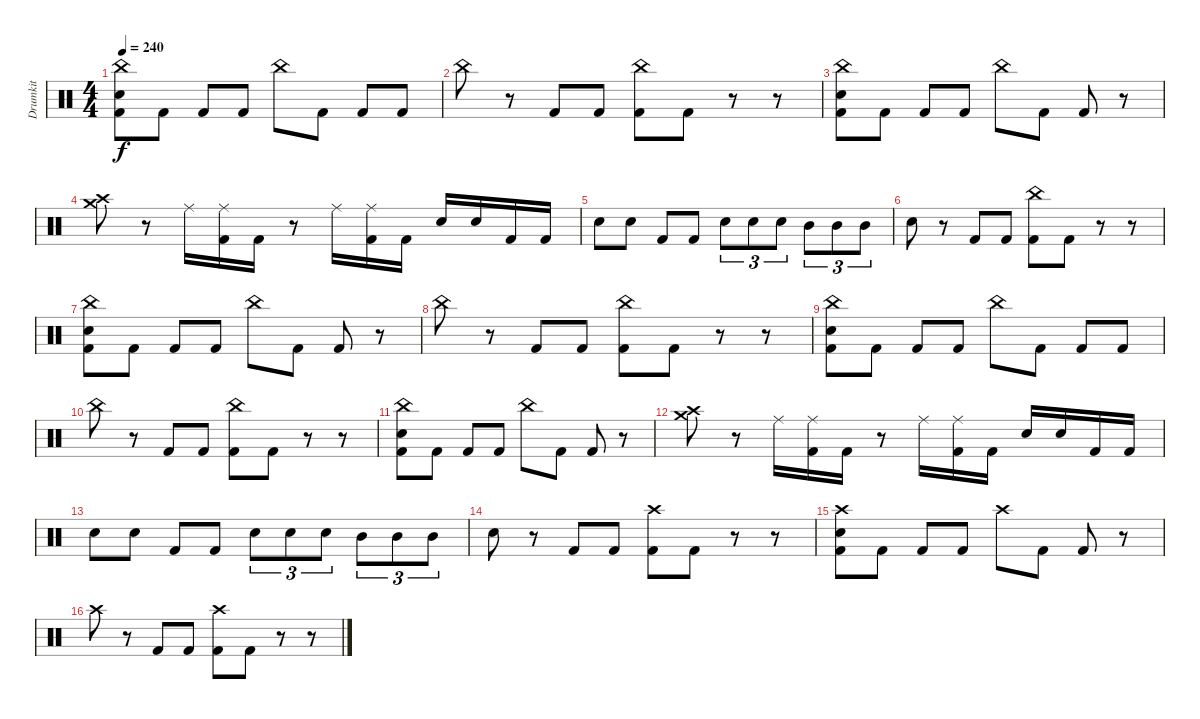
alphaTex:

\track ("Drumkit" "Drumkit") {instrument percussion}
\staff {score}
\articulation defaults
\ts (4 4)
\tempo 240
\clef neutral
\ks c
("China (hit)" "Electric Snare (hit)" "Kick (hit) 2").8{dy f} "Kick (hit) 2".8 "Kick (hit) 2".8 "Kick (hit) 2".8 "China (hit)".8 "Kick (hit) 2".8 "Kick (hit) 2".8 "Kick (hit) 2".8 |
"China (hit)".8 r.8 "Kick (hit) 2".8 "Kick (hit) 2".8 ("China (hit)" "Kick (hit) 2").8 "Kick (hit) 2".8 r.8 r.8 |
("China (hit)" "Electric Snare (hit)" "Kick (hit) 2").8 "Kick (hit) 2".8 "Kick (hit) 2".8 "Kick (hit) 2".8 "China (hit)".8 "Kick (hit) 2".8 "Kick (hit) 2".8 r.8 |
("Crash medium (hit)" "Crash high (hit)").8 r.8 "Ride (middle)".16 ("Ride (middle)" "Kick (hit) 2").16 "Kick (hit) 2".16 r.8 "Ride (middle)".16 ("Ride (middle)" "Kick (hit) 2").16 "Kick (hit) 2".16 "Electric Snare (hit)".16 "Electric Snare (hit)".16 "Kick (hit) 2".16 "Kick (hit) 2".16 |
"Electric Snare (hit)".8 "Electric Snare (hit)".8 "Kick (hit) 2".8 "Kick (hit) 2".8 "Electric Snare (hit)".8{tu (3 2)} "Electric Snare (hit)".8{tu (3 2)} "Electric Snare (hit)".8{tu (3 2)} "Mid Tom (hit)".8{tu (3 2)} "Mid Tom (hit)".8{tu (3 2)} "Mid Tom (hit)".8{tu (3 2)} |
"Electric Snare (hit)".8 r.8 "Kick (hit) 2".8 "Kick (hit) 2".8 ("China (hit)" "Kick (hit) 2").8 "Kick (hit) 2".8 r.8 r.8 |
("China (hit)" "Electric Snare (hit)" "Kick (hit) 2").8 "Kick (hit) 2".8 "Kick (hit) 2".8 "Kick (hit) 2".8 "China (hit)".8 "Kick (hit) 2".8 "Kick (hit) 2".8 r.8 |
"China (hit)".8 r.8 "Kick (hit) 2".8 "Kick (hit) 2".8 ("China (hit)" "Kick (hit) 2").8 "Kick (hit) 2".8 r.8 r.8 |
("China (hit)" "Electric Snare (hit)" "Kick (hit) 2").8 "Kick (hit) 2".8 "Kick (hit) 2".8 "Kick (hit) 2".8 "China (hit)".8 "Kick (hit) 2".8 "Kick (hit) 2".8 "Kick (hit) 2".8 |
"China (hit)".8 r.8 "Kick (hit) 2".8 "Kick (hit) 2".8 ("China (hit)" "Kick (hit) 2").8 "Kick (hit) 2".8 r.8 r.8 |
("China (hit)" "Electric Snare (hit)" "Kick (hit) 2").8 "Kick (hit) 2".8 "Kick (hit) 2".8 "Kick (hit) 2".8 "China (hit)".8 "Kick (hit) 2".8 "Kick (hit) 2".8 r.8 |
("Crash medium (hit)" "Crash high (hit)").8 r.8 "Ride (middle)".16 ("Ride (middle)" "Kick (hit) 2").16 "Kick (hit) 2".16 r.8 "Ride (middle)".16 ("Ride (middle)" "Kick (hit) 2").16 "Kick (hit) 2".16 "Electric Snare (hit)".16 "Electric Snare (hit)".16 "Kick (hit) 2".16 "Kick (hit) 2".16 |
"Electric Snare (hit)".8 "Electric Snare (hit)".8 "Kick (hit) 2".8 "Kick (hit) 2".8 "Electric Snare (hit)".8{tu (3 2)} "Electric Snare (hit)".8{tu (3 2)} "Electric Snare (hit)".8{tu (3 2)} "Mid Tom (hit)".8{tu (3 2)} "Mid Tom (hit)".8{tu (3 2)} "Mid Tom (hit)".8{tu (3 2)} |
"Electric Snare (hit)".8 r.8 "Kick (hit) 2".8 "Kick (hit) 2".8 ("Crash high (hit)" "Kick (hit) 2").8 "Kick (hit) 2".8 r.8 r.8 |
("Crash high (hit)" "Electric Snare (hit)" "Kick (hit) 2").8 "Kick (hit) 2".8 "Kick (hit) 2".8 "Kick (hit) 2".8 "Crash high (hit)".8 "Kick (hit) 2".8 "Kick (hit) 2".8 r.8 |
"Crash high (hit)".8 r.8 "Kick (hit) 2".8 "Kick (hit) 2".8 ("Crash high (hit)" "Kick (hit) 2").8 "Kick (hit) 2".8 r.8 r.8
